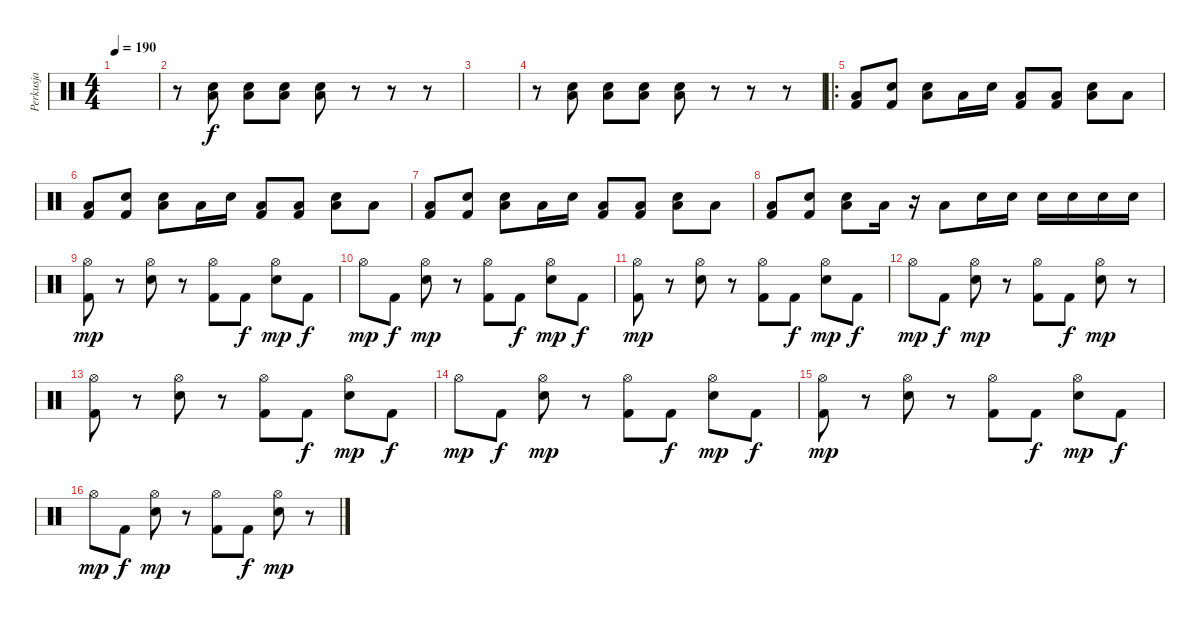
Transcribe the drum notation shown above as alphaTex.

\track ("Perkusja" "Perkusja") {instrument percussion}
\staff {score}
\articulation defaults
\ts (4 4)
\tempo 190
\clef neutral
\ks c
|
r.8 ("Snare (hit) 2" "Low Floor Tom (hit)").8 ("Snare (hit) 2" "Low Floor Tom (hit)").8 ("Snare (hit) 2" "Low Floor Tom (hit)").8 ("Snare (hit) 2" "Low Floor Tom (hit)").8 r.8 r.8 r.8 |
|
r.8 ("Snare (hit) 2" "Low Floor Tom (hit)").8 ("Snare (hit) 2" "Low Floor Tom (hit)").8 ("Snare (hit) 2" "Low Floor Tom (hit)").8 ("Snare (hit) 2" "Low Floor Tom (hit)").8 r.8 r.8 r.8 |
\ro
("Low Floor Tom (hit)" "Kick (hit) 2").8 ("Snare (hit)" "Kick (hit) 2").8 ("Low Floor Tom (hit)" "Snare (hit) 2").8 "Low Floor Tom (hit)".16 "Snare (hit) 2".16 ("Low Floor Tom (hit)" "Kick (hit) 2").8 ("Low Floor Tom (hit)" "Kick (hit) 2").8 ("Low Floor Tom (hit)" "Snare (hit) 2").8 "Low Floor Tom (hit)".8 |
("Low Floor Tom (hit)" "Kick (hit) 2").8 ("Snare (hit)" "Kick (hit) 2").8 ("Low Floor Tom (hit)" "Snare (hit) 2").8 "Low Floor Tom (hit)".16 "Snare (hit) 2".16 ("Low Floor Tom (hit)" "Kick (hit) 2").8 ("Low Floor Tom (hit)" "Kick (hit) 2").8 ("Low Floor Tom (hit)" "Snare (hit) 2").8 "Low Floor Tom (hit)".8 |
("Low Floor Tom (hit)" "Kick (hit) 2").8 ("Snare (hit)" "Kick (hit) 2").8 ("Low Floor Tom (hit)" "Snare (hit) 2").8 "Low Floor Tom (hit)".16 "Snare (hit) 2".16 ("Low Floor Tom (hit)" "Kick (hit) 2").8 ("Low Floor Tom (hit)" "Kick (hit) 2").8 ("Low Floor Tom (hit)" "Snare (hit) 2").8 "Low Floor Tom (hit)".8 |
("Low Floor Tom (hit)" "Kick (hit) 2").8 ("Snare (hit)" "Kick (hit) 2").8 ("Low Floor Tom (hit)" "Snare (hit) 2").8 "Low Floor Tom (hit)".16 r.16 "Low Floor Tom (hit)".8 "Snare (hit) 2".16 "Snare (hit) 2".16 "Snare (hit) 2".16 "Snare (hit) 2".16 "Snare (hit) 2".16 "Snare (hit) 2".16 |
("Hi-Hat (open)" "Kick (hit) 2").8{dy mp} r.8 ("Hi-Hat (open)" "Snare (hit) 2").8 r.8 ("Hi-Hat (open)" "Kick (hit) 2").8 "Kick (hit) 2".8{dy f} ("Hi-Hat (open)" "Snare (hit) 2").8{dy mp} "Kick (hit) 2".8{dy f} |
"Hi-Hat (open)".8{dy mp} "Kick (hit) 2".8{dy f} ("Hi-Hat (open)" "Snare (hit) 2").8{dy mp} r.8 ("Hi-Hat (open)" "Kick (hit) 2").8 "Kick (hit) 2".8{dy f} ("Hi-Hat (open)" "Snare (hit) 2").8{dy mp} "Kick (hit) 2".8{dy f} |
("Hi-Hat (open)" "Kick (hit) 2").8{dy mp} r.8 ("Hi-Hat (open)" "Snare (hit) 2").8 r.8 ("Hi-Hat (open)" "Kick (hit) 2").8 "Kick (hit) 2".8{dy f} ("Hi-Hat (open)" "Snare (hit) 2").8{dy mp} "Kick (hit) 2".8{dy f} |
"Hi-Hat (open)".8{dy mp} "Kick (hit) 2".8{dy f} ("Hi-Hat (open)" "Snare (hit) 2").8{dy mp} r.8 ("Hi-Hat (open)" "Kick (hit) 2").8 "Kick (hit) 2".8{dy f} ("Hi-Hat (open)" "Snare (hit) 2").8{dy mp} r.8 |
("Hi-Hat (open)" "Kick (hit) 2").8 r.8 ("Hi-Hat (open)" "Snare (hit) 2").8 r.8 ("Hi-Hat (open)" "Kick (hit) 2").8 "Kick (hit) 2".8{dy f} ("Hi-Hat (open)" "Snare (hit) 2").8{dy mp} "Kick (hit) 2".8{dy f} |
"Hi-Hat (open)".8{dy mp} "Kick (hit) 2".8{dy f} ("Hi-Hat (open)" "Snare (hit) 2").8{dy mp} r.8 ("Hi-Hat (open)" "Kick (hit) 2").8 "Kick (hit) 2".8{dy f} ("Hi-Hat (open)" "Snare (hit) 2").8{dy mp} "Kick (hit) 2".8{dy f} |
("Hi-Hat (open)" "Kick (hit) 2").8{dy mp} r.8 ("Hi-Hat (open)" "Snare (hit) 2").8 r.8 ("Hi-Hat (open)" "Kick (hit) 2").8 "Kick (hit) 2".8{dy f} ("Hi-Hat (open)" "Snare (hit) 2").8{dy mp} "Kick (hit) 2".8{dy f} |
"Hi-Hat (open)".8{dy mp} "Kick (hit) 2".8{dy f} ("Hi-Hat (open)" "Snare (hit) 2").8{dy mp} r.8 ("Hi-Hat (open)" "Kick (hit) 2").8 "Kick (hit) 2".8{dy f} ("Hi-Hat (open)" "Snare (hit) 2").8{dy mp} r.8
